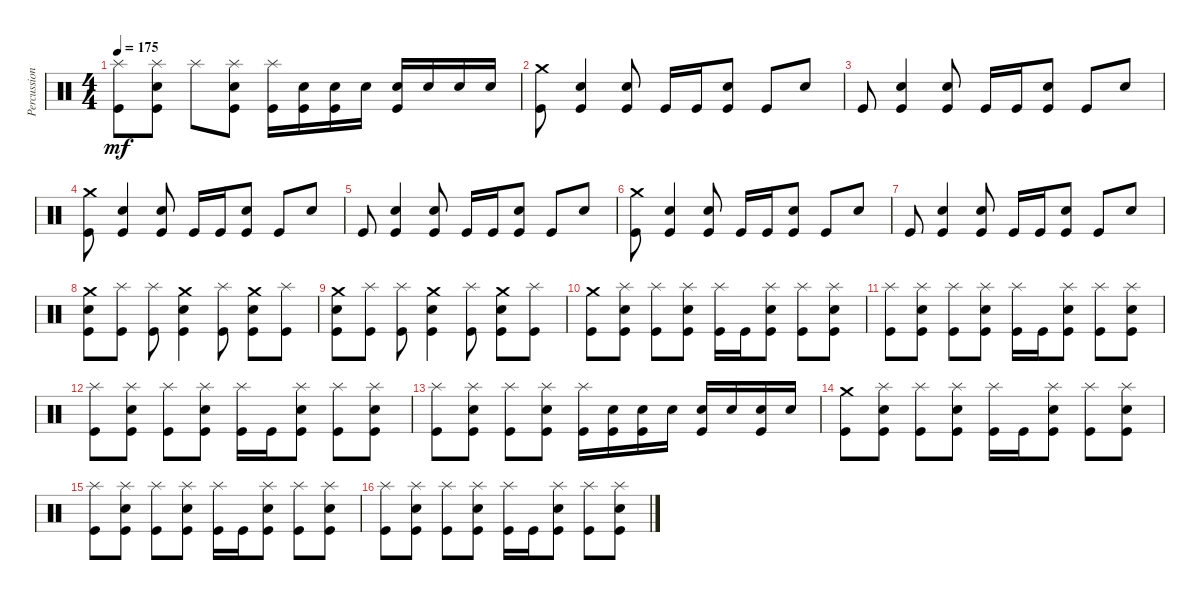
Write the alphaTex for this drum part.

\track ("Percussioni" "Percussion") {instrument percussion}
\staff {score}
\articulation defaults
\ts (4 4)
\tempo 175
\clef neutral
\ks c
("Splash (hit)" "Kick (hit)").8{dy mf} ("Electric Snare (hit)" "Splash (hit)" "Kick (hit)").8 "Splash (hit)".8 ("Electric Snare (hit)" "Splash (hit)" "Kick (hit)").8 ("Splash (hit)" "Kick (hit)").16 ("Electric Snare (hit)" "Kick (hit)").16 ("Electric Snare (hit)" "Kick (hit)").16 "Electric Snare (hit)".16 ("Electric Snare (hit)" "Kick (hit)").16 "Electric Snare (hit)".16 "Electric Snare (hit)".16 "Electric Snare (hit)".16 |
("Crash medium (hit)" "Kick (hit)").8 ("Electric Snare (hit)" "Kick (hit)").4 ("Electric Snare (hit)" "Kick (hit)").8 "Kick (hit)".16 "Kick (hit)".16 ("Electric Snare (hit)" "Kick (hit)").8 "Kick (hit)".8 "Electric Snare (hit)".8 |
"Kick (hit)".8 ("Electric Snare (hit)" "Kick (hit)").4 ("Electric Snare (hit)" "Kick (hit)").8 "Kick (hit)".16 "Kick (hit)".16 ("Electric Snare (hit)" "Kick (hit)").8 "Kick (hit)".8 "Electric Snare (hit)".8 |
("Crash medium (hit)" "Kick (hit)").8 ("Electric Snare (hit)" "Kick (hit)").4 ("Electric Snare (hit)" "Kick (hit)").8 "Kick (hit)".16 "Kick (hit)".16 ("Electric Snare (hit)" "Kick (hit)").8 "Kick (hit)".8 "Electric Snare (hit)".8 |
"Kick (hit)".8 ("Electric Snare (hit)" "Kick (hit)").4 ("Electric Snare (hit)" "Kick (hit)").8 "Kick (hit)".16 "Kick (hit)".16 ("Electric Snare (hit)" "Kick (hit)").8 "Kick (hit)".8 "Electric Snare (hit)".8 |
("Crash medium (hit)" "Kick (hit)").8 ("Electric Snare (hit)" "Kick (hit)").4 ("Electric Snare (hit)" "Kick (hit)").8 "Kick (hit)".16 "Kick (hit)".16 ("Electric Snare (hit)" "Kick (hit)").8 "Kick (hit)".8 "Electric Snare (hit)".8 |
"Kick (hit)".8 ("Electric Snare (hit)" "Kick (hit)").4 ("Electric Snare (hit)" "Kick (hit)").8 "Kick (hit)".16 "Kick (hit)".16 ("Electric Snare (hit)" "Kick (hit)").8 "Kick (hit)".8 "Electric Snare (hit)".8 |
("Kick (hit)" "Electric Snare (hit)" "Crash medium (hit)").8 ("Kick (hit)" "Splash (hit)").8 ("Kick (hit)" "Splash (hit)").8 ("Kick (hit)" "Electric Snare (hit)" "Crash medium (hit)").4 ("Kick (hit)" "Splash (hit)").8 ("Kick (hit)" "Electric Snare (hit)" "Crash medium (hit)").8 ("Kick (hit)" "Splash (hit)").8 |
("Kick (hit)" "Electric Snare (hit)" "Crash medium (hit)").8 ("Kick (hit)" "Splash (hit)").8 ("Kick (hit)" "Splash (hit)").8 ("Kick (hit)" "Electric Snare (hit)" "Crash medium (hit)").4 ("Kick (hit)" "Splash (hit)").8 ("Kick (hit)" "Electric Snare (hit)" "Crash medium (hit)").8 ("Kick (hit)" "Splash (hit)").8 |
("Crash medium (hit)" "Kick (hit)").8 ("Electric Snare (hit)" "Splash (hit)" "Kick (hit)").8 ("Splash (hit)" "Kick (hit)").8 ("Electric Snare (hit)" "Splash (hit)" "Kick (hit)").8 ("Splash (hit)" "Kick (hit)").16 "Kick (hit)".16 ("Electric Snare (hit)" "Splash (hit)" "Kick (hit)").8 ("Splash (hit)" "Kick (hit)").8 ("Electric Snare (hit)" "Splash (hit)" "Kick (hit)").8 |
("Splash (hit)" "Kick (hit)").8 ("Electric Snare (hit)" "Splash (hit)" "Kick (hit)").8 ("Splash (hit)" "Kick (hit)").8 ("Electric Snare (hit)" "Splash (hit)" "Kick (hit)").8 ("Splash (hit)" "Kick (hit)").16 "Kick (hit)".16 ("Electric Snare (hit)" "Splash (hit)" "Kick (hit)").8 ("Splash (hit)" "Kick (hit)").8 ("Electric Snare (hit)" "Splash (hit)" "Kick (hit)").8 |
("Splash (hit)" "Kick (hit)").8 ("Electric Snare (hit)" "Splash (hit)" "Kick (hit)").8 ("Splash (hit)" "Kick (hit)").8 ("Electric Snare (hit)" "Splash (hit)" "Kick (hit)").8 ("Splash (hit)" "Kick (hit)").16 "Kick (hit)".16 ("Electric Snare (hit)" "Splash (hit)" "Kick (hit)").8 ("Splash (hit)" "Kick (hit)").8 ("Electric Snare (hit)" "Splash (hit)" "Kick (hit)").8 |
("Splash (hit)" "Kick (hit)").8 ("Electric Snare (hit)" "Splash (hit)" "Kick (hit)").8 ("Splash (hit)" "Kick (hit)").8 ("Electric Snare (hit)" "Splash (hit)" "Kick (hit)").8 ("Splash (hit)" "Kick (hit)").16 ("Electric Snare (hit)" "Kick (hit)").16 ("Electric Snare (hit)" "Kick (hit)").16 "Electric Snare (hit)".16 ("Electric Snare (hit)" "Kick (hit)").16 "Electric Snare (hit)".16 ("Electric Snare (hit)" "Kick (hit)").16 "Electric Snare (hit)".16 |
("Crash medium (hit)" "Kick (hit)").8 ("Electric Snare (hit)" "Splash (hit)" "Kick (hit)").8 ("Splash (hit)" "Kick (hit)").8 ("Electric Snare (hit)" "Splash (hit)" "Kick (hit)").8 ("Splash (hit)" "Kick (hit)").16 "Kick (hit)".16 ("Electric Snare (hit)" "Splash (hit)" "Kick (hit)").8 ("Splash (hit)" "Kick (hit)").8 ("Electric Snare (hit)" "Splash (hit)" "Kick (hit)").8 |
("Splash (hit)" "Kick (hit)").8 ("Electric Snare (hit)" "Splash (hit)" "Kick (hit)").8 ("Splash (hit)" "Kick (hit)").8 ("Electric Snare (hit)" "Splash (hit)" "Kick (hit)").8 ("Splash (hit)" "Kick (hit)").16 "Kick (hit)".16 ("Electric Snare (hit)" "Splash (hit)" "Kick (hit)").8 ("Splash (hit)" "Kick (hit)").8 ("Electric Snare (hit)" "Splash (hit)" "Kick (hit)").8 |
("Splash (hit)" "Kick (hit)").8 ("Electric Snare (hit)" "Splash (hit)" "Kick (hit)").8 ("Splash (hit)" "Kick (hit)").8 ("Electric Snare (hit)" "Splash (hit)" "Kick (hit)").8 ("Splash (hit)" "Kick (hit)").16 "Kick (hit)".16 ("Electric Snare (hit)" "Splash (hit)" "Kick (hit)").8 ("Splash (hit)" "Kick (hit)").8 ("Electric Snare (hit)" "Splash (hit)" "Kick (hit)").8
